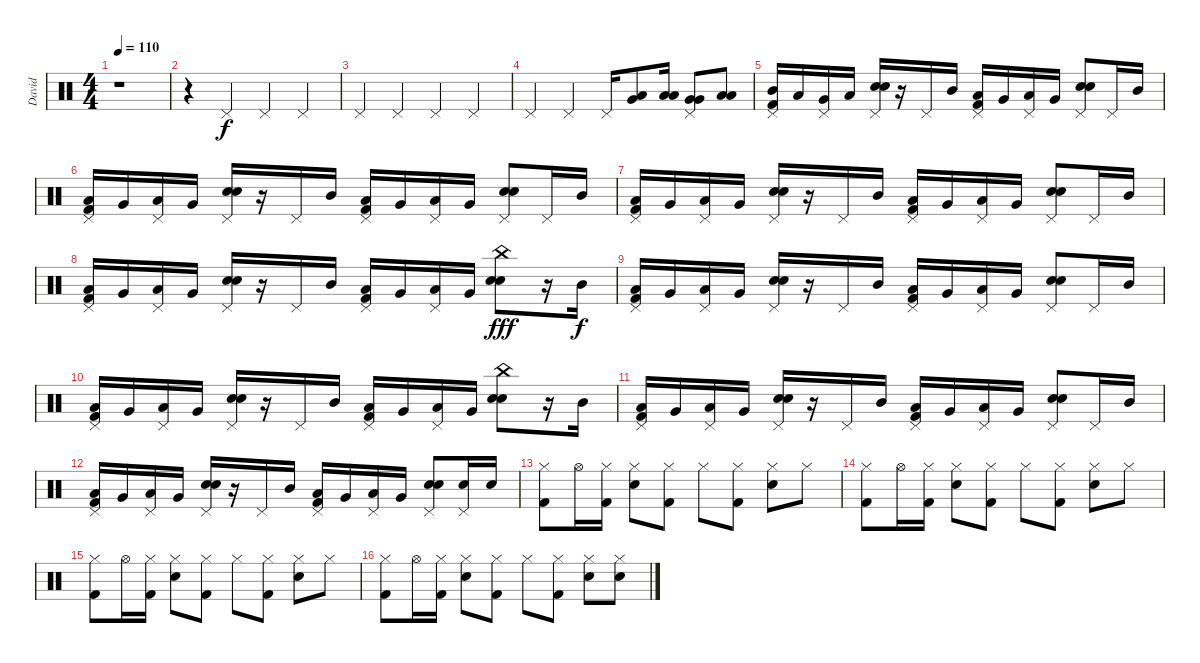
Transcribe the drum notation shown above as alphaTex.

\track ("David" "David") {instrument percussion}
\staff {score}
\articulation defaults
\ts (4 4)
\tempo 110
\clef neutral
\ks c
r.1{dy f} |
r.4 "Pedal Hi-Hat (hit)".4 "Pedal Hi-Hat (hit)".4 "Pedal Hi-Hat (hit)".4 |
"Pedal Hi-Hat (hit)".4 "Pedal Hi-Hat (hit)".4 "Pedal Hi-Hat (hit)".4 "Pedal Hi-Hat (hit)".4 |
"Pedal Hi-Hat (hit)".4 "Pedal Hi-Hat (hit)".4 "Pedal Hi-Hat (hit)".16 ("Low Tom (hit)" "Very Low Tom (hit)").8 ("Low Tom (hit)" "Low Tom (hit)").16 ("Pedal Hi-Hat (hit)" "Very Low Tom (hit)" "Very Low Tom (hit)").8 ("Low Floor Tom (hit)" "Low Floor Tom (hit)").8 |
("Pedal Hi-Hat (hit)" "Mid Tom (hit)" "Kick (hit) 2").16 "Low Tom (hit)".16 ("Pedal Hi-Hat (hit)" "Very Low Tom (hit)").16 "Low Floor Tom (hit)".16 ("Pedal Hi-Hat (hit)" "Snare (hit) 2" "Snare (hit) 2").16 r.16 "Pedal Hi-Hat (hit)".16 "Mid Tom (hit)".16 ("Pedal Hi-Hat (hit)" "Low Tom (hit)" "Kick (hit) 2").16 "Very Low Tom (hit)".16 ("Pedal Hi-Hat (hit)" "Low Floor Tom (hit)").16 "Very Low Tom (hit)".16 ("Pedal Hi-Hat (hit)" "Snare (hit) 2" "Snare (hit) 2").8 "Pedal Hi-Hat (hit)".16 "Mid Tom (hit)".16 |
("Pedal Hi-Hat (hit)" "Low Tom (hit)" "Kick (hit) 2").16 "Very Low Tom (hit)".16 ("Pedal Hi-Hat (hit)" "Low Floor Tom (hit)").16 "Very Low Tom (hit)".16 ("Pedal Hi-Hat (hit)" "Snare (hit) 2" "Snare (hit) 2").16 r.16 "Pedal Hi-Hat (hit)".16 "Mid Tom (hit)".16 ("Pedal Hi-Hat (hit)" "Low Tom (hit)" "Kick (hit) 2").16 "Very Low Tom (hit)".16 ("Pedal Hi-Hat (hit)" "Low Floor Tom (hit)").16 "Very Low Tom (hit)".16 ("Pedal Hi-Hat (hit)" "Snare (hit) 2" "Snare (hit) 2").8 "Pedal Hi-Hat (hit)".16 "Mid Tom (hit)".16 |
("Pedal Hi-Hat (hit)" "Low Tom (hit)" "Kick (hit) 2").16 "Very Low Tom (hit)".16 ("Pedal Hi-Hat (hit)" "Low Floor Tom (hit)").16 "Very Low Tom (hit)".16 ("Pedal Hi-Hat (hit)" "Snare (hit) 2" "Snare (hit) 2").16 r.16 "Pedal Hi-Hat (hit)".16 "Mid Tom (hit)".16 ("Pedal Hi-Hat (hit)" "Low Tom (hit)" "Kick (hit) 2").16 "Very Low Tom (hit)".16 ("Pedal Hi-Hat (hit)" "Low Floor Tom (hit)").16 "Very Low Tom (hit)".16 ("Pedal Hi-Hat (hit)" "Snare (hit) 2" "Snare (hit) 2").8 "Pedal Hi-Hat (hit)".16 "Mid Tom (hit)".16 |
("Pedal Hi-Hat (hit)" "Low Tom (hit)" "Kick (hit) 2").16 "Very Low Tom (hit)".16 ("Pedal Hi-Hat (hit)" "Low Floor Tom (hit)").16 "Very Low Tom (hit)".16 ("Pedal Hi-Hat (hit)" "Snare (hit) 2" "Snare (hit) 2").16 r.16 "Pedal Hi-Hat (hit)".16 "Mid Tom (hit)".16 ("Pedal Hi-Hat (hit)" "Low Tom (hit)" "Kick (hit) 2").16 "Very Low Tom (hit)".16 ("Pedal Hi-Hat (hit)" "Low Floor Tom (hit)").16 "Very Low Tom (hit)".16 ("China (hit)" "Snare (hit) 2" "Snare (hit) 2").8{dy fff} r.16 "Mid Tom (hit)".16{dy f} |
("Pedal Hi-Hat (hit)" "Low Tom (hit)" "Kick (hit) 2").16 "Very Low Tom (hit)".16 ("Pedal Hi-Hat (hit)" "Low Floor Tom (hit)").16 "Very Low Tom (hit)".16 ("Pedal Hi-Hat (hit)" "Snare (hit) 2" "Snare (hit) 2").16 r.16 "Pedal Hi-Hat (hit)".16 "Mid Tom (hit)".16 ("Pedal Hi-Hat (hit)" "Low Tom (hit)" "Kick (hit) 2").16 "Very Low Tom (hit)".16 ("Pedal Hi-Hat (hit)" "Low Floor Tom (hit)").16 "Very Low Tom (hit)".16 ("Pedal Hi-Hat (hit)" "Snare (hit) 2" "Snare (hit) 2").8 "Pedal Hi-Hat (hit)".16 "Mid Tom (hit)".16 |
("Pedal Hi-Hat (hit)" "Low Tom (hit)" "Kick (hit) 2").16 "Very Low Tom (hit)".16 ("Pedal Hi-Hat (hit)" "Low Floor Tom (hit)").16 "Very Low Tom (hit)".16 ("Pedal Hi-Hat (hit)" "Snare (hit) 2" "Snare (hit) 2").16 r.16 "Pedal Hi-Hat (hit)".16 "Mid Tom (hit)".16 ("Pedal Hi-Hat (hit)" "Low Tom (hit)" "Kick (hit) 2").16 "Very Low Tom (hit)".16 ("Pedal Hi-Hat (hit)" "Low Floor Tom (hit)").16 "Very Low Tom (hit)".16 ("China (hit)" "Snare (hit) 2" "Snare (hit) 2").8 r.16 "Mid Tom (hit)".16 |
("Pedal Hi-Hat (hit)" "Low Tom (hit)" "Kick (hit) 2").16 "Very Low Tom (hit)".16 ("Pedal Hi-Hat (hit)" "Low Floor Tom (hit)").16 "Very Low Tom (hit)".16 ("Pedal Hi-Hat (hit)" "Snare (hit) 2" "Snare (hit) 2").16 r.16 "Pedal Hi-Hat (hit)".16 "Mid Tom (hit)".16 ("Pedal Hi-Hat (hit)" "Low Tom (hit)" "Kick (hit) 2").16 "Very Low Tom (hit)".16 ("Pedal Hi-Hat (hit)" "Low Floor Tom (hit)").16 "Very Low Tom (hit)".16 ("Pedal Hi-Hat (hit)" "Snare (hit) 2" "Snare (hit) 2").8 "Pedal Hi-Hat (hit)".16 "Mid Tom (hit)".16 |
("Pedal Hi-Hat (hit)" "Low Tom (hit)" "Kick (hit) 2").16 "Very Low Tom (hit)".16 ("Pedal Hi-Hat (hit)" "Low Floor Tom (hit)").16 "Very Low Tom (hit)".16 ("Pedal Hi-Hat (hit)" "Snare (hit) 2" "Snare (hit) 2").16 r.16 "Pedal Hi-Hat (hit)".16 "Mid Tom (hit)".16 ("Pedal Hi-Hat (hit)" "Low Tom (hit)" "Kick (hit) 2").16 "Very Low Tom (hit)".16 ("Pedal Hi-Hat (hit)" "Low Floor Tom (hit)").16 "Very Low Tom (hit)".16 ("Pedal Hi-Hat (hit)" "Snare (hit) 2" "Snare (hit) 2").8 ("Pedal Hi-Hat (hit)" "Snare (hit) 2").16 "Snare (hit) 2".16 |
("Hi-Hat (closed)" "Kick (hit) 2").8 "Hi-Hat (open)".16 ("Hi-Hat (closed)" "Kick (hit) 2").16 ("Hi-Hat (closed)" "Snare (hit) 2").8 ("Hi-Hat (closed)" "Kick (hit) 2").8 "Hi-Hat (closed)".8 ("Hi-Hat (closed)" "Kick (hit) 2").8 ("Hi-Hat (closed)" "Snare (hit) 2").8 "Hi-Hat (closed)".8 |
("Hi-Hat (closed)" "Kick (hit) 2").8 "Hi-Hat (open)".16 ("Hi-Hat (closed)" "Kick (hit) 2").16 ("Hi-Hat (closed)" "Snare (hit) 2").8 ("Hi-Hat (closed)" "Kick (hit) 2").8 "Hi-Hat (closed)".8 ("Hi-Hat (closed)" "Kick (hit) 2").8 ("Hi-Hat (closed)" "Snare (hit) 2").8 "Hi-Hat (closed)".8 |
("Hi-Hat (closed)" "Kick (hit) 2").8 "Hi-Hat (open)".16 ("Hi-Hat (closed)" "Kick (hit) 2").16 ("Hi-Hat (closed)" "Snare (hit) 2").8 ("Hi-Hat (closed)" "Kick (hit) 2").8 "Hi-Hat (closed)".8 ("Hi-Hat (closed)" "Kick (hit) 2").8 ("Hi-Hat (closed)" "Snare (hit) 2").8 "Hi-Hat (closed)".8 |
("Hi-Hat (closed)" "Kick (hit) 2").8 "Hi-Hat (open)".16 ("Hi-Hat (closed)" "Kick (hit) 2").16 ("Hi-Hat (closed)" "Snare (hit) 2").8 ("Hi-Hat (closed)" "Kick (hit) 2").8 "Hi-Hat (closed)".8 ("Hi-Hat (closed)" "Kick (hit) 2").8 ("Hi-Hat (closed)" "Snare (hit) 2").8 ("Hi-Hat (closed)" "Snare (hit) 2").8
